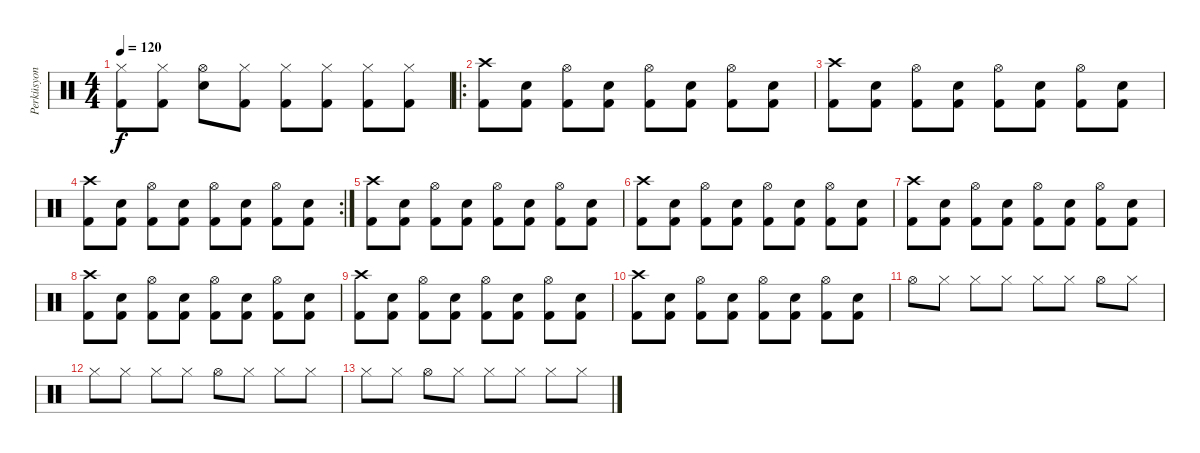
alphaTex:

\track ("Perküsyon" "Perküsyon") {instrument percussion}
\staff {score}
\articulation defaults
\ts (4 4)
\tempo 120
\clef neutral
\ks c
("Hi-Hat (closed)" "Kick (hit) 2").8{dy f} ("Hi-Hat (closed)" "Kick (hit) 2").8 ("Hi-Hat (open)" "Electric Snare (hit)").8 ("Hi-Hat (closed)" "Kick (hit) 2").8 ("Hi-Hat (closed)" "Kick (hit) 2").8 ("Hi-Hat (closed)" "Kick (hit) 2").8 ("Hi-Hat (closed)" "Kick (hit) 2").8 ("Hi-Hat (closed)" "Kick (hit) 2").8 |
\ro
("Crash high (hit)" "Kick (hit) 2").8 ("Kick (hit) 2" "Electric Snare (hit)").8 ("Hi-Hat (open)" "Kick (hit) 2").8 ("Kick (hit) 2" "Snare (hit) 2").8 ("Hi-Hat (open)" "Kick (hit) 2").8 ("Kick (hit) 2" "Electric Snare (hit)").8 ("Hi-Hat (open)" "Kick (hit) 2").8 ("Kick (hit) 2" "Snare (hit) 2").8 |
("Crash high (hit)" "Kick (hit) 2").8 ("Kick (hit) 2" "Electric Snare (hit)").8 ("Hi-Hat (open)" "Kick (hit) 2").8 ("Kick (hit) 2" "Snare (hit) 2").8 ("Hi-Hat (open)" "Kick (hit) 2").8 ("Kick (hit) 2" "Electric Snare (hit)").8 ("Hi-Hat (open)" "Kick (hit) 2").8 ("Kick (hit) 2" "Snare (hit) 2").8 |
\rc 2
("Crash high (hit)" "Kick (hit) 2").8 ("Kick (hit) 2" "Electric Snare (hit)").8 ("Hi-Hat (open)" "Kick (hit) 2").8 ("Kick (hit) 2" "Snare (hit) 2").8 ("Hi-Hat (open)" "Kick (hit) 2").8 ("Kick (hit) 2" "Electric Snare (hit)").8 ("Hi-Hat (open)" "Kick (hit) 2").8 ("Kick (hit) 2" "Snare (hit) 2").8 |
("Crash high (hit)" "Kick (hit) 2").8 ("Kick (hit) 2" "Electric Snare (hit)").8 ("Hi-Hat (open)" "Kick (hit) 2").8 ("Kick (hit) 2" "Snare (hit) 2").8 ("Hi-Hat (open)" "Kick (hit) 2").8 ("Kick (hit) 2" "Electric Snare (hit)").8 ("Hi-Hat (open)" "Kick (hit) 2").8 ("Kick (hit) 2" "Snare (hit) 2").8 |
("Crash high (hit)" "Kick (hit) 2").8 ("Kick (hit) 2" "Electric Snare (hit)").8 ("Hi-Hat (open)" "Kick (hit) 2").8 ("Kick (hit) 2" "Snare (hit) 2").8 ("Hi-Hat (open)" "Kick (hit) 2").8 ("Kick (hit) 2" "Electric Snare (hit)").8 ("Hi-Hat (open)" "Kick (hit) 2").8 ("Kick (hit) 2" "Snare (hit) 2").8 |
("Crash high (hit)" "Kick (hit) 2").8 ("Kick (hit) 2" "Electric Snare (hit)").8 ("Hi-Hat (open)" "Kick (hit) 2").8 ("Kick (hit) 2" "Snare (hit) 2").8 ("Hi-Hat (open)" "Kick (hit) 2").8 ("Kick (hit) 2" "Electric Snare (hit)").8 ("Hi-Hat (open)" "Kick (hit) 2").8 ("Kick (hit) 2" "Snare (hit) 2").8 |
("Crash high (hit)" "Kick (hit) 2").8 ("Kick (hit) 2" "Electric Snare (hit)").8 ("Hi-Hat (open)" "Kick (hit) 2").8 ("Kick (hit) 2" "Snare (hit) 2").8 ("Hi-Hat (open)" "Kick (hit) 2").8 ("Kick (hit) 2" "Electric Snare (hit)").8 ("Hi-Hat (open)" "Kick (hit) 2").8 ("Kick (hit) 2" "Snare (hit) 2").8 |
("Crash high (hit)" "Kick (hit) 2").8 ("Kick (hit) 2" "Electric Snare (hit)").8 ("Hi-Hat (open)" "Kick (hit) 2").8 ("Kick (hit) 2" "Snare (hit) 2").8 ("Hi-Hat (open)" "Kick (hit) 2").8 ("Kick (hit) 2" "Electric Snare (hit)").8 ("Hi-Hat (open)" "Kick (hit) 2").8 ("Kick (hit) 2" "Snare (hit) 2").8 |
("Crash high (hit)" "Kick (hit) 2").8 ("Kick (hit) 2" "Electric Snare (hit)").8 ("Hi-Hat (open)" "Kick (hit) 2").8 ("Kick (hit) 2" "Snare (hit) 2").8 ("Hi-Hat (open)" "Kick (hit) 2").8 ("Kick (hit) 2" "Electric Snare (hit)").8 ("Hi-Hat (open)" "Kick (hit) 2").8 ("Kick (hit) 2" "Snare (hit) 2").8 |
"Hi-Hat (open)".8 "Hi-Hat (closed)".8 "Hi-Hat (closed)".8 "Hi-Hat (closed)".8 "Hi-Hat (closed)".8 "Hi-Hat (closed)".8 "Hi-Hat (open)".8 "Hi-Hat (closed)".8 |
"Hi-Hat (closed)".8 "Hi-Hat (closed)".8 "Hi-Hat (closed)".8 "Hi-Hat (closed)".8 "Hi-Hat (open)".8 "Hi-Hat (closed)".8 "Hi-Hat (closed)".8 "Hi-Hat (closed)".8 |
"Hi-Hat (closed)".8 "Hi-Hat (closed)".8 "Hi-Hat (open)".8 "Hi-Hat (closed)".8 "Hi-Hat (closed)".8 "Hi-Hat (closed)".8 "Hi-Hat (closed)".8 "Hi-Hat (closed)".8
